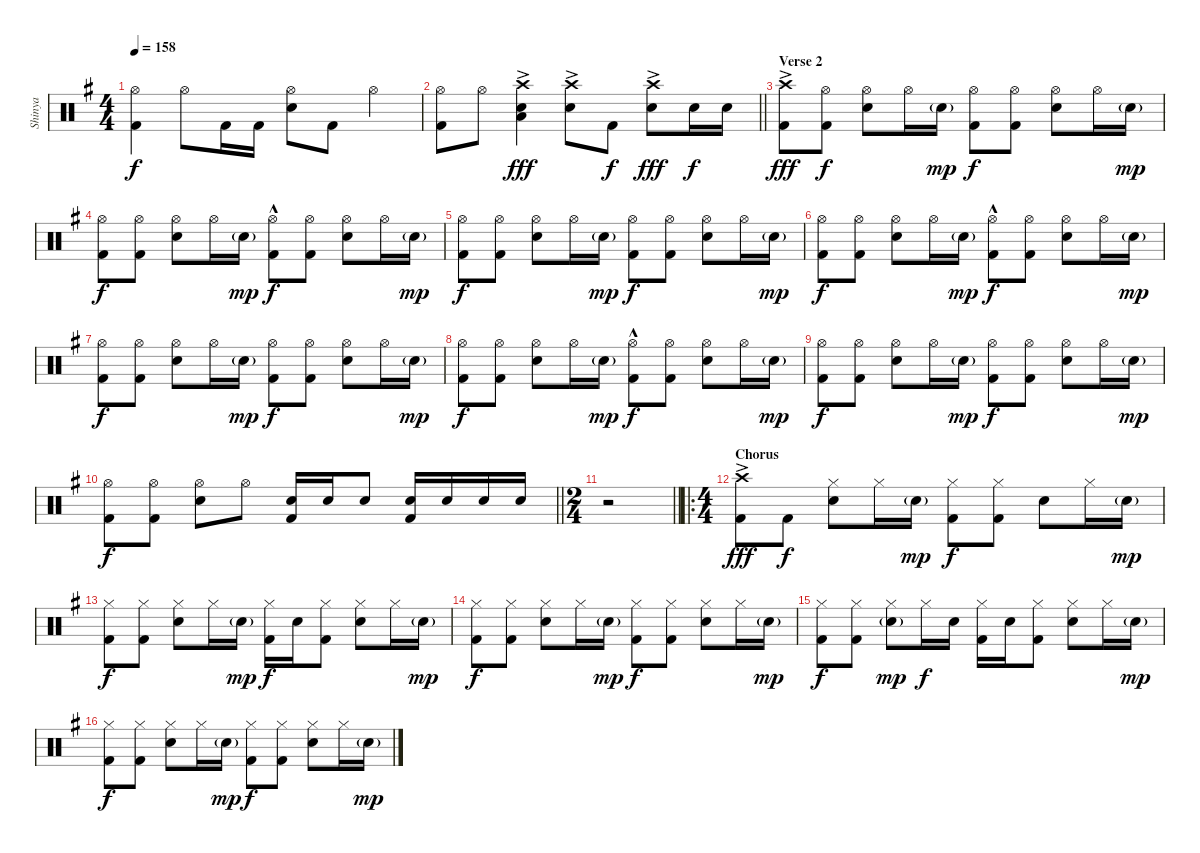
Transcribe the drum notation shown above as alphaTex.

\track ("Shinya" "Shinya") {instrument percussion}
\staff {score}
\articulation defaults
\ts (4 4)
\tempo 158
\clef neutral
\ks g
("Hi-Hat (open)" "Kick (hit) 2").4{dy f} "Hi-Hat (open)".8 "Kick (hit) 2".16 "Kick (hit) 2".16 ("Hi-Hat (open)" "Snare (hit) 2").8 "Kick (hit) 2".8 "Hi-Hat (open)".4 |
\barLineRight lightlight
("Hi-Hat (open)" "Kick (hit) 2").8 "Hi-Hat (open)".8 ("Crash high (hit)"{ac} "Snare (hit) 2" "Low Floor Tom (hit)").4{dy fff} ("Crash high (hit)"{ac} "Snare (hit) 2").8 "Kick (hit) 2".8{dy f} ("Crash high (hit)"{ac} "Snare (hit) 2").8{dy fff} "Snare (hit) 2".16{dy f} "Snare (hit) 2".16 |
\section ("" "Verse 2")
("Crash high (hit)"{ac} "Kick (hit) 2").8{dy fff} ("Hi-Hat (open)" "Kick (hit) 2").8{dy f} ("Hi-Hat (open)" "Snare (hit) 2").8 "Hi-Hat (open)".16 "Snare (hit) 2"{g}.16{dy mp} ("Hi-Hat (open)" "Kick (hit) 2").8{dy f} ("Hi-Hat (open)" "Kick (hit) 2").8 ("Hi-Hat (open)" "Snare (hit) 2").8 "Hi-Hat (open)".16 "Snare (hit) 2"{g}.16{dy mp} |
("Hi-Hat (open)" "Kick (hit) 2").8{dy f} ("Hi-Hat (open)" "Kick (hit) 2").8 ("Hi-Hat (open)" "Snare (hit) 2").8 "Hi-Hat (open)".16 "Snare (hit) 2"{g}.16{dy mp} ("Hi-Hat (open)" "Kick (hit) 2"{hac}).8{dy f} ("Hi-Hat (open)" "Kick (hit) 2").8 ("Hi-Hat (open)" "Snare (hit) 2").8 "Hi-Hat (open)".16 "Snare (hit) 2"{g}.16{dy mp} |
("Hi-Hat (open)" "Kick (hit) 2").8{dy f} ("Hi-Hat (open)" "Kick (hit) 2").8 ("Hi-Hat (open)" "Snare (hit) 2").8 "Hi-Hat (open)".16 "Snare (hit) 2"{g}.16{dy mp} ("Hi-Hat (open)" "Kick (hit) 2").8{dy f} ("Hi-Hat (open)" "Kick (hit) 2").8 ("Hi-Hat (open)" "Snare (hit) 2").8 "Hi-Hat (open)".16 "Snare (hit) 2"{g}.16{dy mp} |
("Hi-Hat (open)" "Kick (hit) 2").8{dy f} ("Hi-Hat (open)" "Kick (hit) 2").8 ("Hi-Hat (open)" "Snare (hit) 2").8 "Hi-Hat (open)".16 "Snare (hit) 2"{g}.16{dy mp} ("Hi-Hat (open)" "Kick (hit) 2"{hac}).8{dy f} ("Hi-Hat (open)" "Kick (hit) 2").8 ("Hi-Hat (open)" "Snare (hit) 2").8 "Hi-Hat (open)".16 "Snare (hit) 2"{g}.16{dy mp} |
("Hi-Hat (open)" "Kick (hit) 2").8{dy f} ("Hi-Hat (open)" "Kick (hit) 2").8 ("Hi-Hat (open)" "Snare (hit) 2").8 "Hi-Hat (open)".16 "Snare (hit) 2"{g}.16{dy mp} ("Hi-Hat (open)" "Kick (hit) 2").8{dy f} ("Hi-Hat (open)" "Kick (hit) 2").8 ("Hi-Hat (open)" "Snare (hit) 2").8 "Hi-Hat (open)".16 "Snare (hit) 2"{g}.16{dy mp} |
("Hi-Hat (open)" "Kick (hit) 2").8{dy f} ("Hi-Hat (open)" "Kick (hit) 2").8 ("Hi-Hat (open)" "Snare (hit) 2").8 "Hi-Hat (open)".16 "Snare (hit) 2"{g}.16{dy mp} ("Hi-Hat (open)" "Kick (hit) 2"{hac}).8{dy f} ("Hi-Hat (open)" "Kick (hit) 2").8 ("Hi-Hat (open)" "Snare (hit) 2").8 "Hi-Hat (open)".16 "Snare (hit) 2"{g}.16{dy mp} |
("Hi-Hat (open)" "Kick (hit) 2").8{dy f} ("Hi-Hat (open)" "Kick (hit) 2").8 ("Hi-Hat (open)" "Snare (hit) 2").8 "Hi-Hat (open)".16 "Snare (hit) 2"{g}.16{dy mp} ("Hi-Hat (open)" "Kick (hit) 2").8{dy f} ("Hi-Hat (open)" "Kick (hit) 2").8 ("Hi-Hat (open)" "Snare (hit) 2").8 "Hi-Hat (open)".16 "Snare (hit) 2"{g}.16{dy mp} |
\barLineRight lightlight
("Hi-Hat (open)" "Kick (hit) 2").8{dy f} ("Hi-Hat (open)" "Kick (hit) 2").8 ("Hi-Hat (open)" "Snare (hit) 2").8 "Hi-Hat (open)".8 ("Snare (hit) 2" "Kick (hit) 2").16 "Snare (hit) 2".16 "Snare (hit) 2".8 ("Snare (hit) 2" "Kick (hit) 2").16 "Snare (hit) 2".16 "Snare (hit) 2".16 "Snare (hit) 2".16 |
\ts (2 4)
\barLineRight lightlight
r.2 |
\ro
\ts (4 4)
\section ("" "Chorus")
("Crash high (hit)"{ac} "Kick (hit) 2").8{dy fff} "Kick (hit) 2".8{dy f} ("Hi-Hat (closed)" "Snare (hit) 2").8 "Hi-Hat (closed)".16 "Snare (hit) 2"{g}.16{dy mp} ("Hi-Hat (closed)" "Kick (hit) 2").8{dy f} ("Hi-Hat (closed)" "Kick (hit) 2").8 "Snare (hit) 2".8 "Hi-Hat (closed)".16 "Snare (hit) 2"{g}.16{dy mp} |
("Hi-Hat (closed)" "Kick (hit) 2").8{dy f} ("Hi-Hat (closed)" "Kick (hit) 2").8 ("Hi-Hat (closed)" "Snare (hit) 2").8 "Hi-Hat (closed)".16 "Snare (hit) 2"{g}.16{dy mp} ("Hi-Hat (closed)" "Kick (hit) 2").16{dy f} "Snare (hit) 2".16 ("Hi-Hat (closed)" "Kick (hit) 2").8 ("Hi-Hat (closed)" "Snare (hit) 2").8 "Hi-Hat (closed)".16 "Snare (hit) 2"{g}.16{dy mp} |
("Hi-Hat (closed)" "Kick (hit) 2").8{dy f} ("Hi-Hat (closed)" "Kick (hit) 2").8 ("Hi-Hat (closed)" "Snare (hit) 2").8 "Hi-Hat (closed)".16 "Snare (hit) 2"{g}.16{dy mp} ("Hi-Hat (closed)" "Kick (hit) 2").8{dy f} ("Hi-Hat (closed)" "Kick (hit) 2").8 ("Hi-Hat (closed)" "Snare (hit) 2").8 "Hi-Hat (closed)".16 "Snare (hit) 2"{g}.16{dy mp} |
("Hi-Hat (closed)" "Kick (hit) 2").8{dy f} ("Hi-Hat (closed)" "Kick (hit) 2").8 ("Hi-Hat (closed)" "Snare (hit) 2"{g}).8{dy mp} "Hi-Hat (closed)".16{dy f} "Snare (hit) 2".16 ("Hi-Hat (closed)" "Kick (hit) 2").16 "Snare (hit) 2".16 ("Hi-Hat (closed)" "Kick (hit) 2").8 ("Hi-Hat (closed)" "Snare (hit) 2").8 "Hi-Hat (closed)".16 "Snare (hit) 2"{g}.16{dy mp} |
("Hi-Hat (closed)" "Kick (hit) 2").8{dy f} ("Hi-Hat (closed)" "Kick (hit) 2").8 ("Hi-Hat (closed)" "Snare (hit) 2").8 "Hi-Hat (closed)".16 "Snare (hit) 2"{g}.16{dy mp} ("Hi-Hat (closed)" "Kick (hit) 2").8{dy f} ("Hi-Hat (closed)" "Kick (hit) 2").8 ("Hi-Hat (closed)" "Snare (hit) 2").8 "Hi-Hat (closed)".16 "Snare (hit) 2"{g}.16{dy mp}
